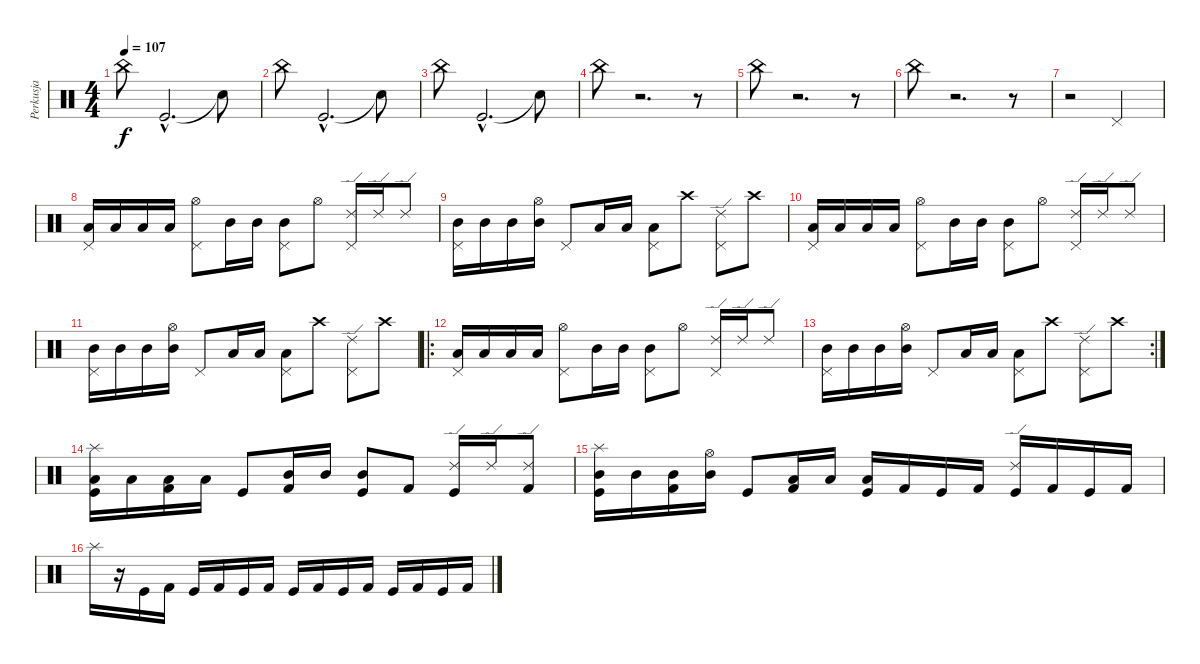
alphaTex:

\track ("Perkusja" "Perkusja") {instrument percussion}
\staff {score}
\articulation defaults
\ts (4 4)
\tempo 107
\clef neutral
\ks c "China (hit)".8{dy f} "Kick (hit)"{hac}.2{d} "Snare (hit)"{t}.8
|
"China (hit)".8 "Kick (hit)"{hac}.2{d} "Snare (hit)"{t}.8 |
"China (hit)".8 "Kick (hit)"{hac}.2{d} "Snare (hit)"{t}.8 |
"China (hit)".8 r.2{d} r.8 |
"China (hit)".8 r.2{d} r.8 |
"China (hit)".8 r.2{d} r.8 |
r.2 "Pedal Hi-Hat (hit)".2 |
("Low Tom (hit)" "Pedal Hi-Hat (hit)").16 "Low Tom (hit)".16 "Low Tom (hit)".16 "Low Tom (hit)".16 ("Hi-Hat (open)" "Pedal Hi-Hat (hit)").8 "Mid Tom (hit)".16 "Mid Tom (hit)".16 ("Mid Tom (hit)" "Pedal Hi-Hat (hit)").8 "Hi-Hat (open)".8 ("Ride (edge) 2" "Pedal Hi-Hat (hit)").16 "Ride (edge) 2".16 "Ride (edge) 2".8 |
("Mid Tom (hit)" "Pedal Hi-Hat (hit)").16 "Mid Tom (hit)".16 "Mid Tom (hit)".16 ("Mid Tom (hit)" "Hi-Hat (open)").16 "Pedal Hi-Hat (hit)".8 "Low Tom (hit)".16 "Low Tom (hit)".16 ("Low Tom (hit)" "Pedal Hi-Hat (hit)").8 "Crash high (hit)".8 ("Ride (edge) 2" "Pedal Hi-Hat (hit)").8 "Crash high (hit)".8 |
("Low Tom (hit)" "Pedal Hi-Hat (hit)").16 "Low Tom (hit)".16 "Low Tom (hit)".16 "Low Tom (hit)".16 ("Hi-Hat (open)" "Pedal Hi-Hat (hit)").8 "Mid Tom (hit)".16 "Mid Tom (hit)".16 ("Mid Tom (hit)" "Pedal Hi-Hat (hit)").8 "Hi-Hat (open)".8 ("Ride (edge) 2" "Pedal Hi-Hat (hit)").16 "Ride (edge) 2".16 "Ride (edge) 2".8 |
("Mid Tom (hit)" "Pedal Hi-Hat (hit)").16 "Mid Tom (hit)".16 "Mid Tom (hit)".16 ("Mid Tom (hit)" "Hi-Hat (open)").16 "Pedal Hi-Hat (hit)".8 "Low Tom (hit)".16 "Low Tom (hit)".16 ("Low Tom (hit)" "Pedal Hi-Hat (hit)").8 "Crash high (hit)".8 ("Ride (edge) 2" "Pedal Hi-Hat (hit)").8 "Crash high (hit)".8 |
\ro
("Low Tom (hit)" "Pedal Hi-Hat (hit)").16 "Low Tom (hit)".16 "Low Tom (hit)".16 "Low Tom (hit)".16 ("Hi-Hat (open)" "Pedal Hi-Hat (hit)").8 "Mid Tom (hit)".16 "Mid Tom (hit)".16 ("Mid Tom (hit)" "Pedal Hi-Hat (hit)").8 "Hi-Hat (open)".8 ("Ride (edge) 2" "Pedal Hi-Hat (hit)").16 "Ride (edge) 2".16 "Ride (edge) 2".8 |
\rc 2
("Mid Tom (hit)" "Pedal Hi-Hat (hit)").16 "Mid Tom (hit)".16 "Mid Tom (hit)".16 ("Mid Tom (hit)" "Hi-Hat (open)").16 "Pedal Hi-Hat (hit)".8 "Low Tom (hit)".16 "Low Tom (hit)".16 ("Low Tom (hit)" "Pedal Hi-Hat (hit)").8 "Crash high (hit)".8 ("Ride (edge) 2" "Pedal Hi-Hat (hit)").8 "Crash high (hit)".8 |
("Low Tom (hit)" "Splash (hit)" "Kick (hit)").16 "Low Tom (hit)".16 ("Low Tom (hit)" "Kick (hit) 2").16 "Low Tom (hit)".16 "Kick (hit)".8 ("Mid Tom (hit)" "Kick (hit) 2").16 "Mid Tom (hit)".16 ("Mid Tom (hit)" "Kick (hit)").8 "Kick (hit) 2".8 ("Ride (edge) 2" "Kick (hit)").16 "Ride (edge) 2".16 ("Ride (edge) 2" "Kick (hit) 2").8 |
("Mid Tom (hit)" "Splash (hit)" "Kick (hit)").16 "Mid Tom (hit)".16 ("Mid Tom (hit)" "Kick (hit) 2").16 ("Mid Tom (hit)" "Hi-Hat (open)").16 "Kick (hit)".8 ("Low Tom (hit)" "Kick (hit) 2").16 "Low Tom (hit)".16 ("Low Tom (hit)" "Kick (hit)").16 "Kick (hit) 2".16 "Kick (hit)".16 "Kick (hit) 2".16 ("Ride (edge) 2" "Kick (hit)").16 "Kick (hit) 2".16 "Kick (hit)".16 "Kick (hit) 2".16 |
"Splash (hit)".16 r.16 "Kick (hit)".16 "Kick (hit) 2".16 "Kick (hit)".16 "Kick (hit) 2".16 "Kick (hit)".16 "Kick (hit) 2".16 "Kick (hit)".16 "Kick (hit) 2".16 "Kick (hit)".16 "Kick (hit) 2".16 "Kick (hit)".16 "Kick (hit) 2".16 "Kick (hit)".16 "Kick (hit) 2".16
